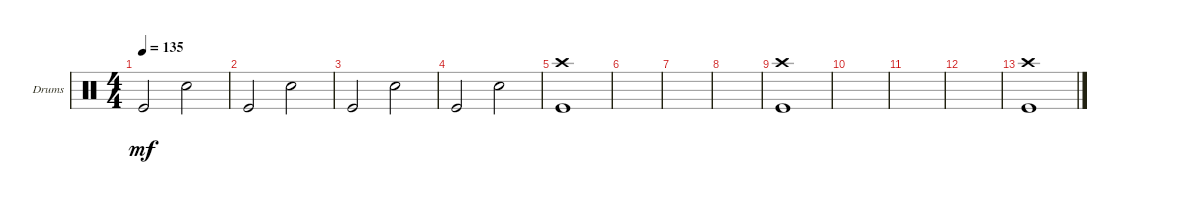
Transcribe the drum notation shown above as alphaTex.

\defaultSystemsLayout 4
\bracketExtendMode groupsimilarinstruments
\firstSystemTrackNameOrientation horizontal
\otherSystemsTrackNameOrientation horizontal
\track ("Drumkit" "Drums") {instrument percussion}
\staff {score}
\articulation defaults
\ts (4 4)
\tempo 135
\clef neutral
\scale
0.333333
\ks c "Kick (hit)".2{dy mf} "Snare (hit) 2".2
|
\scale
0.333333 "Kick (hit)".2 "Snare (hit) 2".2 |
"Kick (hit)".2 "Snare (hit) 2".2 |
"Kick (hit)".2 "Snare (hit) 2".2 |
("Kick (hit)" "Crash high (hit)").1 |
|
|
|
("Kick (hit)" "Crash high (hit)").1 |
|
|
|
("Kick (hit)" "Crash high (hit)").1
